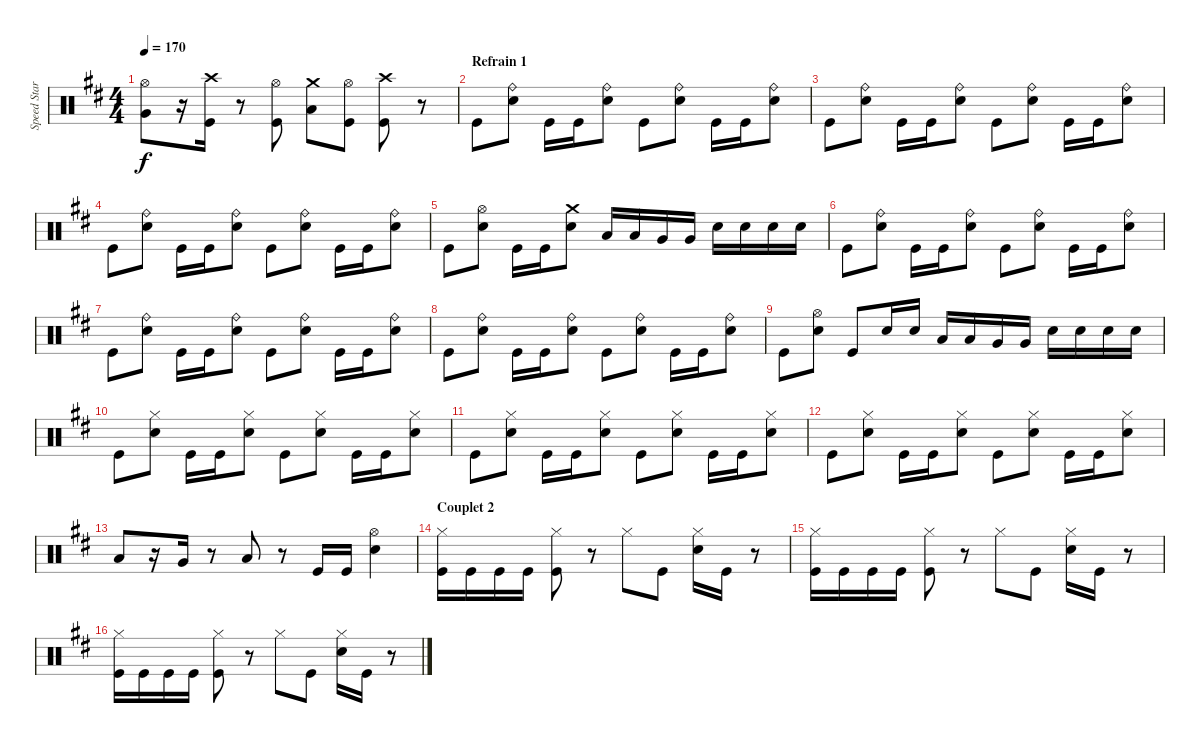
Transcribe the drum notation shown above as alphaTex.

\track ("Speed Star" "Speed Star") {instrument percussion}
\staff {score}
\articulation defaults
\ts (4 4)
\tempo 170
\clef neutral
\ks d
("Very Low Tom (hit)" "Hi-Hat (open)").8{dy f} r.16 ("Kick (hit)" "Crash high (hit)").16 r.8 ("Kick (hit)" "Hi-Hat (open)").8 ("Low Floor Tom (hit)" "Crash medium (hit)").8 ("Kick (hit)" "Hi-Hat (open)").8 ("Kick (hit)" "Crash high (hit)").8 r.8 |
\section ("" "Refrain 1")
"Kick (hit)".8 ("Snare (hit) 2" "Ride (bell)").8 "Kick (hit)".16 "Kick (hit)".16 ("Snare (hit) 2" "Ride (bell)").8 "Kick (hit)".8 ("Snare (hit) 2" "Ride (bell)").8 "Kick (hit)".16 "Kick (hit)".16 ("Snare (hit) 2" "Ride (bell)").8 |
"Kick (hit)".8 ("Snare (hit) 2" "Ride (bell)").8 "Kick (hit)".16 "Kick (hit)".16 ("Snare (hit) 2" "Ride (bell)").8 "Kick (hit)".8 ("Snare (hit) 2" "Ride (bell)").8 "Kick (hit)".16 "Kick (hit)".16 ("Snare (hit) 2" "Ride (bell)").8 |
"Kick (hit)".8 ("Snare (hit) 2" "Ride (bell)").8 "Kick (hit)".16 "Kick (hit)".16 ("Snare (hit) 2" "Ride (bell)").8 "Kick (hit)".8 ("Snare (hit) 2" "Ride (bell)").8 "Kick (hit)".16 "Kick (hit)".16 ("Snare (hit) 2" "Ride (bell)").8 |
"Kick (hit)".8 ("Snare (hit) 2" "Hi-Hat (open)").8 "Kick (hit)".16 "Kick (hit)".16 ("Snare (hit) 2" "Crash medium (hit)").8 "Low Tom (hit)".16 "Low Tom (hit)".16 "Very Low Tom (hit)".16 "Very Low Tom (hit)".16 "Snare (hit) 2".16 "Snare (hit) 2".16 "Snare (hit) 2".16 "Snare (hit) 2".16 |
"Kick (hit)".8 ("Snare (hit) 2" "Ride (bell)").8 "Kick (hit)".16 "Kick (hit)".16 ("Snare (hit) 2" "Ride (bell)").8 "Kick (hit)".8 ("Snare (hit) 2" "Ride (bell)").8 "Kick (hit)".16 "Kick (hit)".16 ("Snare (hit) 2" "Ride (bell)").8 |
"Kick (hit)".8 ("Snare (hit) 2" "Ride (bell)").8 "Kick (hit)".16 "Kick (hit)".16 ("Snare (hit) 2" "Ride (bell)").8 "Kick (hit)".8 ("Snare (hit) 2" "Ride (bell)").8 "Kick (hit)".16 "Kick (hit)".16 ("Snare (hit) 2" "Ride (bell)").8 |
"Kick (hit)".8 ("Snare (hit) 2" "Ride (bell)").8 "Kick (hit)".16 "Kick (hit)".16 ("Snare (hit) 2" "Ride (bell)").8 "Kick (hit)".8 ("Snare (hit) 2" "Ride (bell)").8 "Kick (hit)".16 "Kick (hit)".16 ("Snare (hit) 2" "Ride (bell)").8 |
"Kick (hit)".8 ("Snare (hit) 2" "Hi-Hat (open)").8 "Kick (hit)".8 "Snare (hit) 2".16 "Snare (hit) 2".16 "Low Tom (hit)".16 "Low Tom (hit)".16 "Very Low Tom (hit)".16 "Very Low Tom (hit)".16 "Snare (hit) 2".16 "Snare (hit) 2".16 "Snare (hit) 2".16 "Snare (hit) 2".16 |
"Kick (hit)".8 ("Snare (hit) 2" "Hi-Hat (closed)").8 "Kick (hit)".16 "Kick (hit)".16 ("Snare (hit) 2" "Hi-Hat (closed)").8 "Kick (hit)".8 ("Snare (hit) 2" "Hi-Hat (closed)").8 "Kick (hit)".16 "Kick (hit)".16 ("Snare (hit) 2" "Hi-Hat (closed)").8 |
"Kick (hit)".8 ("Snare (hit) 2" "Hi-Hat (closed)").8 "Kick (hit)".16 "Kick (hit)".16 ("Snare (hit) 2" "Hi-Hat (closed)").8 "Kick (hit)".8 ("Snare (hit) 2" "Hi-Hat (closed)").8 "Kick (hit)".16 "Kick (hit)".16 ("Snare (hit) 2" "Hi-Hat (closed)").8 |
"Kick (hit)".8 ("Snare (hit) 2" "Hi-Hat (closed)").8 "Kick (hit)".16 "Kick (hit)".16 ("Snare (hit) 2" "Hi-Hat (closed)").8 "Kick (hit)".8 ("Snare (hit) 2" "Hi-Hat (closed)").8 "Kick (hit)".16 "Kick (hit)".16 ("Snare (hit) 2" "Hi-Hat (closed)").8 |
"Low Tom (hit)".8 r.16 "Very Low Tom (hit)".16 r.8 "Low Floor Tom (hit)".8 r.8 "Kick (hit)".16 "Kick (hit)".16 ("Snare (hit) 2" "Hi-Hat (open)").4 |
\section ("" "Couplet 2")
("Kick (hit)" "Hi-Hat (closed)").16 "Kick (hit)".16 "Kick (hit)".16 "Kick (hit)".16 ("Kick (hit)" "Hi-Hat (closed)").8 r.8 "Hi-Hat (closed)".8 "Kick (hit)".8 ("Snare (hit) 2" "Hi-Hat (closed)").16 "Kick (hit)".16 r.8 |
("Kick (hit)" "Hi-Hat (closed)").16 "Kick (hit)".16 "Kick (hit)".16 "Kick (hit)".16 ("Kick (hit)" "Hi-Hat (closed)").8 r.8 "Hi-Hat (closed)".8 "Kick (hit)".8 ("Snare (hit) 2" "Hi-Hat (closed)").16 "Kick (hit)".16 r.8 |
("Kick (hit)" "Hi-Hat (closed)").16 "Kick (hit)".16 "Kick (hit)".16 "Kick (hit)".16 ("Kick (hit)" "Hi-Hat (closed)").8 r.8 "Hi-Hat (closed)".8 "Kick (hit)".8 ("Snare (hit) 2" "Hi-Hat (closed)").16 "Kick (hit)".16 r.8
